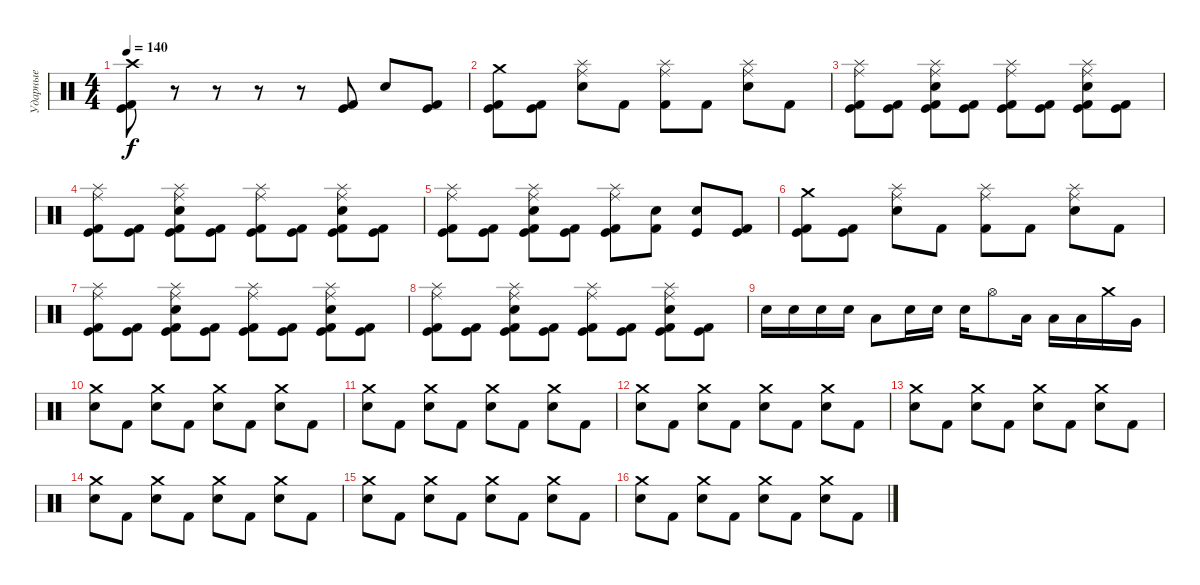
\track ("Ударные" "Ударные") {instrument percussion}
\staff {score}
\articulation defaults
\ts (4 4)
\tempo 140
\clef neutral
\ks c
("Crash high (hit)" "Kick (hit) 2" "Kick (hit)").8{dy f} r.8 r.8 r.8 r.8 ("Kick (hit) 2" "Kick (hit)").8 "Electric Snare (hit)".8 ("Kick (hit)" "Kick (hit) 2").8 |
("Crash medium (hit)" "Kick (hit) 2" "Kick (hit)").8 ("Kick (hit)" "Kick (hit) 2").8 ("Ride (middle)" "Splash (hit)" "Electric Snare (hit)").8 "Kick (hit) 2".8 ("Ride (middle)" "Splash (hit)" "Kick (hit) 2").8 "Kick (hit) 2".8 ("Ride (middle)" "Splash (hit)" "Electric Snare (hit)").8 "Kick (hit) 2".8 |
("Ride (middle)" "Splash (hit)" "Kick (hit) 2" "Kick (hit)").8 ("Kick (hit)" "Kick (hit) 2").8 ("Ride (middle)" "Splash (hit)" "Kick (hit) 2" "Kick (hit)" "Electric Snare (hit)").8 ("Kick (hit)" "Kick (hit) 2").8 ("Ride (middle)" "Splash (hit)" "Kick (hit) 2" "Kick (hit)").8 ("Kick (hit)" "Kick (hit) 2").8 ("Ride (middle)" "Splash (hit)" "Kick (hit) 2" "Kick (hit)" "Electric Snare (hit)").8 ("Kick (hit)" "Kick (hit) 2").8 |
("Ride (middle)" "Splash (hit)" "Kick (hit) 2" "Kick (hit)").8 ("Kick (hit)" "Kick (hit) 2").8 ("Ride (middle)" "Splash (hit)" "Kick (hit) 2" "Kick (hit)" "Electric Snare (hit)").8 ("Kick (hit)" "Kick (hit) 2").8 ("Ride (middle)" "Splash (hit)" "Kick (hit) 2" "Kick (hit)").8 ("Kick (hit)" "Kick (hit) 2").8 ("Ride (middle)" "Splash (hit)" "Kick (hit) 2" "Kick (hit)" "Electric Snare (hit)").8 ("Kick (hit)" "Kick (hit) 2").8 |
("Ride (middle)" "Splash (hit)" "Kick (hit) 2" "Kick (hit)").8 ("Kick (hit)" "Kick (hit) 2").8 ("Ride (middle)" "Splash (hit)" "Kick (hit) 2" "Kick (hit)" "Electric Snare (hit)").8 ("Kick (hit)" "Kick (hit) 2").8 ("Ride (middle)" "Splash (hit)" "Kick (hit) 2" "Kick (hit)").8 ("Electric Snare (hit)" "Kick (hit) 2").8 ("Electric Snare (hit)" "Kick (hit)").8 ("Kick (hit)" "Kick (hit) 2").8 |
("Crash medium (hit)" "Kick (hit) 2" "Kick (hit)").8 ("Kick (hit)" "Kick (hit) 2").8 ("Ride (middle)" "Splash (hit)" "Electric Snare (hit)").8 "Kick (hit) 2".8 ("Ride (middle)" "Splash (hit)" "Kick (hit) 2").8 "Kick (hit) 2".8 ("Ride (middle)" "Splash (hit)" "Electric Snare (hit)").8 "Kick (hit) 2".8 |
("Ride (middle)" "Splash (hit)" "Kick (hit) 2" "Kick (hit)").8 ("Kick (hit)" "Kick (hit) 2").8 ("Ride (middle)" "Splash (hit)" "Kick (hit) 2" "Kick (hit)" "Electric Snare (hit)").8 ("Kick (hit)" "Kick (hit) 2").8 ("Ride (middle)" "Splash (hit)" "Kick (hit) 2" "Kick (hit)").8 ("Kick (hit)" "Kick (hit) 2").8 ("Ride (middle)" "Splash (hit)" "Kick (hit) 2" "Kick (hit)" "Electric Snare (hit)").8 ("Kick (hit)" "Kick (hit) 2").8 |
("Ride (middle)" "Splash (hit)" "Kick (hit) 2" "Kick (hit)").8 ("Kick (hit)" "Kick (hit) 2").8 ("Ride (middle)" "Splash (hit)" "Kick (hit) 2" "Kick (hit)" "Electric Snare (hit)").8 ("Kick (hit)" "Kick (hit) 2").8 ("Ride (middle)" "Splash (hit)" "Kick (hit) 2" "Kick (hit)").8 ("Kick (hit)" "Kick (hit) 2").8 ("Ride (middle)" "Splash (hit)" "Kick (hit) 2" "Kick (hit)" "Electric Snare (hit)").8 ("Kick (hit)" "Kick (hit) 2").8 |
"Electric Snare (hit)".16 "Electric Snare (hit)".16 "Electric Snare (hit)".16 "Electric Snare (hit)".16 "Low Floor Tom (hit)".8 "Electric Snare (hit)".16 "Electric Snare (hit)".16 "Electric Snare (hit)".16 "Hi-Hat (open)".8 "Low Floor Tom (hit)".16 "Low Floor Tom (hit)".16 "Low Floor Tom (hit)".16 "Crash medium (hit)".16 "Very Low Tom (hit)".16 |
("Crash medium (hit)" "Electric Snare (hit)").8 "Kick (hit) 2".8 ("Crash medium (hit)" "Electric Snare (hit)").8 "Kick (hit) 2".8 ("Crash medium (hit)" "Electric Snare (hit)").8 "Kick (hit) 2".8 ("Crash medium (hit)" "Electric Snare (hit)").8 "Kick (hit) 2".8 |
("Crash medium (hit)" "Electric Snare (hit)").8 "Kick (hit) 2".8 ("Crash medium (hit)" "Electric Snare (hit)").8 "Kick (hit) 2".8 ("Crash medium (hit)" "Electric Snare (hit)").8 "Kick (hit) 2".8 ("Crash medium (hit)" "Electric Snare (hit)").8 "Kick (hit) 2".8 |
("Crash medium (hit)" "Electric Snare (hit)").8 "Kick (hit) 2".8 ("Crash medium (hit)" "Electric Snare (hit)").8 "Kick (hit) 2".8 ("Crash medium (hit)" "Electric Snare (hit)").8 "Kick (hit) 2".8 ("Crash medium (hit)" "Electric Snare (hit)").8 "Kick (hit) 2".8 |
("Crash medium (hit)" "Electric Snare (hit)").8 "Kick (hit) 2".8 ("Crash medium (hit)" "Electric Snare (hit)").8 "Kick (hit) 2".8 ("Crash medium (hit)" "Electric Snare (hit)").8 "Kick (hit) 2".8 ("Crash medium (hit)" "Electric Snare (hit)").8 "Kick (hit) 2".8 |
("Crash medium (hit)" "Electric Snare (hit)").8 "Kick (hit) 2".8 ("Crash medium (hit)" "Electric Snare (hit)").8 "Kick (hit) 2".8 ("Crash medium (hit)" "Electric Snare (hit)").8 "Kick (hit) 2".8 ("Crash medium (hit)" "Electric Snare (hit)").8 "Kick (hit) 2".8 |
("Crash medium (hit)" "Electric Snare (hit)").8 "Kick (hit) 2".8 ("Crash medium (hit)" "Electric Snare (hit)").8 "Kick (hit) 2".8 ("Crash medium (hit)" "Electric Snare (hit)").8 "Kick (hit) 2".8 ("Crash medium (hit)" "Electric Snare (hit)").8 "Kick (hit) 2".8 |
("Crash medium (hit)" "Electric Snare (hit)").8 "Kick (hit) 2".8 ("Crash medium (hit)" "Electric Snare (hit)").8 "Kick (hit) 2".8 ("Crash medium (hit)" "Electric Snare (hit)").8 "Kick (hit) 2".8 ("Crash medium (hit)" "Electric Snare (hit)").8 "Kick (hit) 2".8
